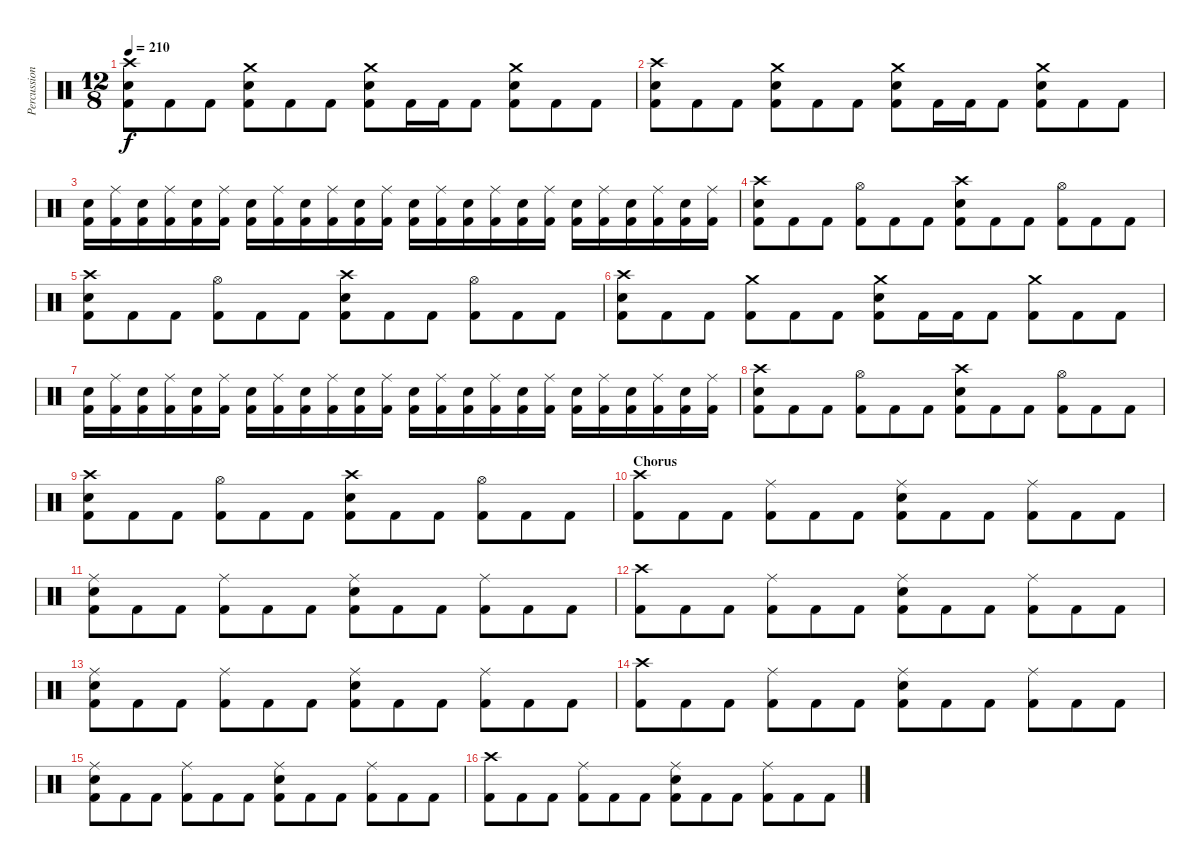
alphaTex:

\track ("Percussion" "Percussion") {instrument percussion}
\staff {score}
\articulation defaults
\ts (12 8)
\tempo 210
\clef neutral
\ks c
("Crash high (hit)" "Snare (hit) 2" "Kick (hit) 2").8{dy f} "Kick (hit) 2".8 "Kick (hit) 2".8 ("Crash medium (hit)" "Snare (hit) 2" "Kick (hit) 2").8 "Kick (hit) 2".8 "Kick (hit) 2".8 ("Crash medium (hit)" "Snare (hit) 2" "Kick (hit) 2").8 "Kick (hit) 2".16 "Kick (hit) 2".16 "Kick (hit) 2".8 ("Crash medium (hit)" "Snare (hit) 2" "Kick (hit) 2").8 "Kick (hit) 2".8 "Kick (hit) 2".8 |
("Crash high (hit)" "Snare (hit) 2" "Kick (hit) 2").8 "Kick (hit) 2".8 "Kick (hit) 2".8 ("Crash medium (hit)" "Snare (hit) 2" "Kick (hit) 2").8 "Kick (hit) 2".8 "Kick (hit) 2".8 ("Crash medium (hit)" "Snare (hit) 2" "Kick (hit) 2").8 "Kick (hit) 2".16 "Kick (hit) 2".16 "Kick (hit) 2".8 ("Crash medium (hit)" "Snare (hit) 2" "Kick (hit) 2").8 "Kick (hit) 2".8 "Kick (hit) 2".8 |
("Snare (hit) 2" "Kick (hit) 2").16 ("Ride (middle)" "Kick (hit) 2").16 ("Snare (hit) 2" "Kick (hit) 2").16 ("Ride (middle)" "Kick (hit) 2").16 ("Snare (hit) 2" "Kick (hit) 2").16 ("Ride (middle)" "Kick (hit) 2").16 ("Snare (hit) 2" "Kick (hit) 2").16 ("Ride (middle)" "Kick (hit) 2").16 ("Snare (hit) 2" "Kick (hit) 2").16 ("Ride (middle)" "Kick (hit) 2").16 ("Snare (hit) 2" "Kick (hit) 2").16 ("Ride (middle)" "Kick (hit) 2").16 ("Snare (hit) 2" "Kick (hit) 2").16 ("Ride (middle)" "Kick (hit) 2").16 ("Snare (hit) 2" "Kick (hit) 2").16 ("Ride (middle)" "Kick (hit) 2").16 ("Snare (hit) 2" "Kick (hit) 2").16 ("Ride (middle)" "Kick (hit) 2").16 ("Snare (hit) 2" "Kick (hit) 2").16 ("Ride (middle)" "Kick (hit) 2").16 ("Snare (hit) 2" "Kick (hit) 2").16 ("Ride (middle)" "Kick (hit) 2").16 ("Snare (hit) 2" "Kick (hit) 2").16 ("Ride (middle)" "Kick (hit) 2").16 |
("Crash high (hit)" "Snare (hit) 2" "Kick (hit) 2").8 "Kick (hit) 2".8 "Kick (hit) 2".8 ("Hi-Hat (open)" "Kick (hit) 2").8 "Kick (hit) 2".8 "Kick (hit) 2".8 ("Crash high (hit)" "Snare (hit) 2" "Kick (hit) 2").8 "Kick (hit) 2".8 "Kick (hit) 2".8 ("Hi-Hat (open)" "Kick (hit) 2").8 "Kick (hit) 2".8 "Kick (hit) 2".8 |
("Crash high (hit)" "Snare (hit) 2" "Kick (hit) 2").8 "Kick (hit) 2".8 "Kick (hit) 2".8 ("Hi-Hat (open)" "Kick (hit) 2").8 "Kick (hit) 2".8 "Kick (hit) 2".8 ("Crash high (hit)" "Snare (hit) 2" "Kick (hit) 2").8 "Kick (hit) 2".8 "Kick (hit) 2".8 ("Hi-Hat (open)" "Kick (hit) 2").8 "Kick (hit) 2".8 "Kick (hit) 2".8 |
("Crash high (hit)" "Snare (hit) 2" "Kick (hit) 2").8 "Kick (hit) 2".8 "Kick (hit) 2".8 ("Crash medium (hit)" "Kick (hit) 2").8 "Kick (hit) 2".8 "Kick (hit) 2".8 ("Crash medium (hit)" "Snare (hit) 2" "Kick (hit) 2").8 "Kick (hit) 2".16 "Kick (hit) 2".16 "Kick (hit) 2".8 ("Crash medium (hit)" "Kick (hit) 2").8 "Kick (hit) 2".8 "Kick (hit) 2".8 |
("Snare (hit) 2" "Kick (hit) 2").16 ("Ride (middle)" "Kick (hit) 2").16 ("Snare (hit) 2" "Kick (hit) 2").16 ("Ride (middle)" "Kick (hit) 2").16 ("Snare (hit) 2" "Kick (hit) 2").16 ("Ride (middle)" "Kick (hit) 2").16 ("Snare (hit) 2" "Kick (hit) 2").16 ("Ride (middle)" "Kick (hit) 2").16 ("Snare (hit) 2" "Kick (hit) 2").16 ("Ride (middle)" "Kick (hit) 2").16 ("Snare (hit) 2" "Kick (hit) 2").16 ("Ride (middle)" "Kick (hit) 2").16 ("Snare (hit) 2" "Kick (hit) 2").16 ("Ride (middle)" "Kick (hit) 2").16 ("Snare (hit) 2" "Kick (hit) 2").16 ("Ride (middle)" "Kick (hit) 2").16 ("Snare (hit) 2" "Kick (hit) 2").16 ("Ride (middle)" "Kick (hit) 2").16 ("Snare (hit) 2" "Kick (hit) 2").16 ("Ride (middle)" "Kick (hit) 2").16 ("Snare (hit) 2" "Kick (hit) 2").16 ("Ride (middle)" "Kick (hit) 2").16 ("Snare (hit) 2" "Kick (hit) 2").16 ("Ride (middle)" "Kick (hit) 2").16 |
("Crash high (hit)" "Snare (hit) 2" "Kick (hit) 2").8 "Kick (hit) 2".8 "Kick (hit) 2".8 ("Hi-Hat (open)" "Kick (hit) 2").8 "Kick (hit) 2".8 "Kick (hit) 2".8 ("Crash high (hit)" "Snare (hit) 2" "Kick (hit) 2").8 "Kick (hit) 2".8 "Kick (hit) 2".8 ("Hi-Hat (open)" "Kick (hit) 2").8 "Kick (hit) 2".8 "Kick (hit) 2".8 |
("Crash high (hit)" "Snare (hit) 2" "Kick (hit) 2").8 "Kick (hit) 2".8 "Kick (hit) 2".8 ("Hi-Hat (open)" "Kick (hit) 2").8 "Kick (hit) 2".8 "Kick (hit) 2".8 ("Crash high (hit)" "Snare (hit) 2" "Kick (hit) 2").8 "Kick (hit) 2".8 "Kick (hit) 2".8 ("Hi-Hat (open)" "Kick (hit) 2").8 "Kick (hit) 2".8 "Kick (hit) 2".8 |
\section ("" "Chorus")
("Crash high (hit)" "Kick (hit) 2").8 "Kick (hit) 2".8 "Kick (hit) 2".8 ("Ride (middle)" "Kick (hit) 2").8 "Kick (hit) 2".8 "Kick (hit) 2".8 ("Ride (middle)" "Snare (hit) 2" "Kick (hit) 2").8 "Kick (hit) 2".8 "Kick (hit) 2".8 ("Ride (middle)" "Kick (hit) 2").8 "Kick (hit) 2".8 "Kick (hit) 2".8 |
("Ride (middle)" "Snare (hit) 2" "Kick (hit) 2").8 "Kick (hit) 2".8 "Kick (hit) 2".8 ("Ride (middle)" "Kick (hit) 2").8 "Kick (hit) 2".8 "Kick (hit) 2".8 ("Ride (middle)" "Snare (hit) 2" "Kick (hit) 2").8 "Kick (hit) 2".8 "Kick (hit) 2".8 ("Ride (middle)" "Kick (hit) 2").8 "Kick (hit) 2".8 "Kick (hit) 2".8 |
("Crash high (hit)" "Kick (hit) 2").8 "Kick (hit) 2".8 "Kick (hit) 2".8 ("Ride (middle)" "Kick (hit) 2").8 "Kick (hit) 2".8 "Kick (hit) 2".8 ("Ride (middle)" "Snare (hit) 2" "Kick (hit) 2").8 "Kick (hit) 2".8 "Kick (hit) 2".8 ("Ride (middle)" "Kick (hit) 2").8 "Kick (hit) 2".8 "Kick (hit) 2".8 |
("Ride (middle)" "Snare (hit) 2" "Kick (hit) 2").8 "Kick (hit) 2".8 "Kick (hit) 2".8 ("Ride (middle)" "Kick (hit) 2").8 "Kick (hit) 2".8 "Kick (hit) 2".8 ("Ride (middle)" "Snare (hit) 2" "Kick (hit) 2").8 "Kick (hit) 2".8 "Kick (hit) 2".8 ("Ride (middle)" "Kick (hit) 2").8 "Kick (hit) 2".8 "Kick (hit) 2".8 |
("Crash high (hit)" "Kick (hit) 2").8 "Kick (hit) 2".8 "Kick (hit) 2".8 ("Ride (middle)" "Kick (hit) 2").8 "Kick (hit) 2".8 "Kick (hit) 2".8 ("Ride (middle)" "Snare (hit) 2" "Kick (hit) 2").8 "Kick (hit) 2".8 "Kick (hit) 2".8 ("Ride (middle)" "Kick (hit) 2").8 "Kick (hit) 2".8 "Kick (hit) 2".8 |
("Ride (middle)" "Snare (hit) 2" "Kick (hit) 2").8 "Kick (hit) 2".8 "Kick (hit) 2".8 ("Ride (middle)" "Kick (hit) 2").8 "Kick (hit) 2".8 "Kick (hit) 2".8 ("Ride (middle)" "Snare (hit) 2" "Kick (hit) 2").8 "Kick (hit) 2".8 "Kick (hit) 2".8 ("Ride (middle)" "Kick (hit) 2").8 "Kick (hit) 2".8 "Kick (hit) 2".8 |
("Crash high (hit)" "Kick (hit) 2").8 "Kick (hit) 2".8 "Kick (hit) 2".8 ("Ride (middle)" "Kick (hit) 2").8 "Kick (hit) 2".8 "Kick (hit) 2".8 ("Ride (middle)" "Snare (hit) 2" "Kick (hit) 2").8 "Kick (hit) 2".8 "Kick (hit) 2".8 ("Ride (middle)" "Kick (hit) 2").8 "Kick (hit) 2".8 "Kick (hit) 2".8
